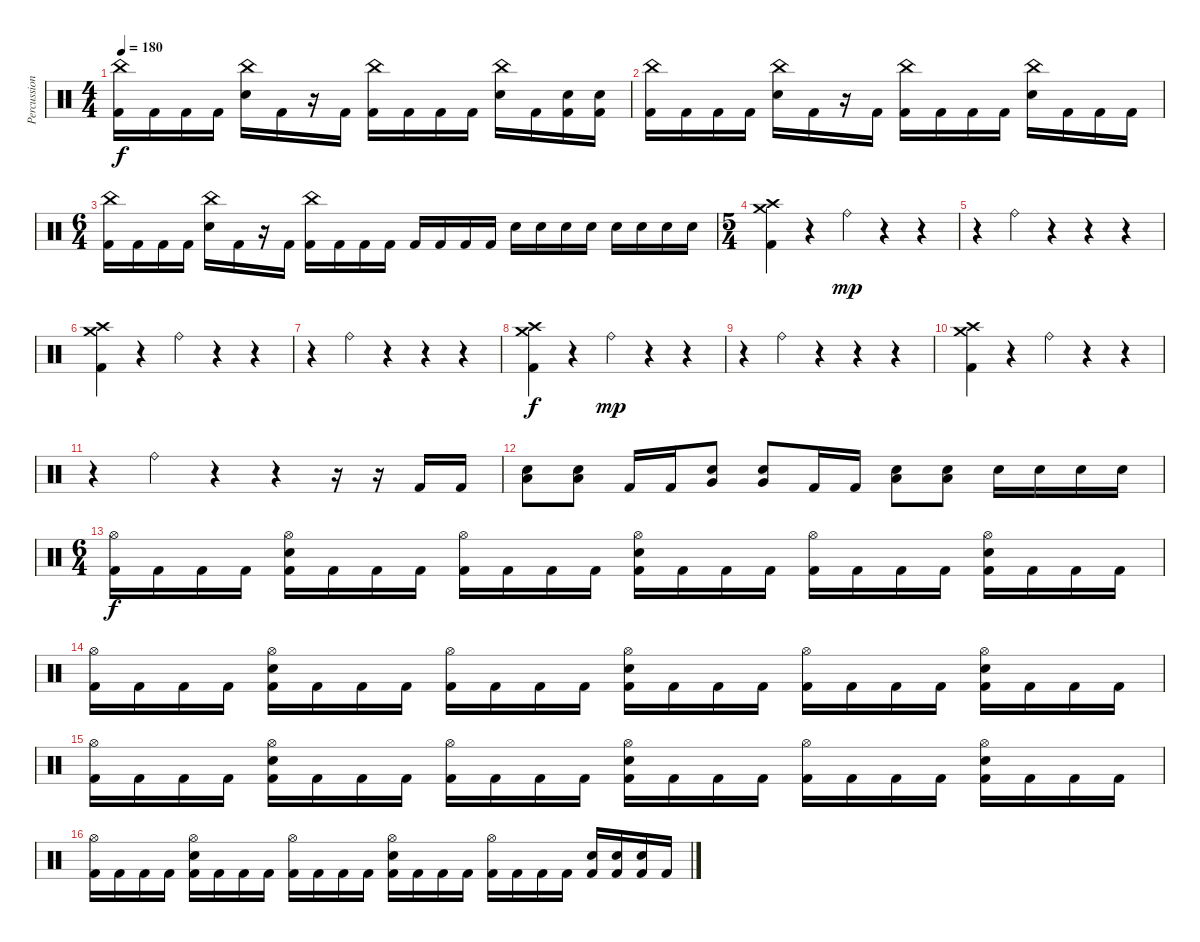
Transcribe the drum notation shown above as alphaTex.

\track ("Percussion" "Percussion") {instrument percussion}
\staff {score}
\articulation defaults
\ts (4 4)
\tempo 180
\clef neutral
\ks c
("China (hit)" "Kick (hit) 2").16{dy f} "Kick (hit) 2".16 "Kick (hit) 2".16 "Kick (hit) 2".16 ("China (hit)" "Electric Snare (hit)").16 "Kick (hit) 2".16 r.16 "Kick (hit) 2".16 ("China (hit)" "Kick (hit) 2").16 "Kick (hit) 2".16 "Kick (hit) 2".16 "Kick (hit) 2".16 ("China (hit)" "Electric Snare (hit)").16 "Kick (hit) 2".16 ("Electric Snare (hit)" "Kick (hit) 2").16 ("Electric Snare (hit)" "Kick (hit) 2").16 |
("China (hit)" "Kick (hit) 2").16 "Kick (hit) 2".16 "Kick (hit) 2".16 "Kick (hit) 2".16 ("China (hit)" "Electric Snare (hit)").16 "Kick (hit) 2".16 r.16 "Kick (hit) 2".16 ("China (hit)" "Kick (hit) 2").16 "Kick (hit) 2".16 "Kick (hit) 2".16 "Kick (hit) 2".16 ("China (hit)" "Electric Snare (hit)").16 "Kick (hit) 2".16 "Kick (hit) 2".16 "Kick (hit) 2".16 |
\ts (6 4)
("China (hit)" "Kick (hit) 2").16 "Kick (hit) 2".16 "Kick (hit) 2".16 "Kick (hit) 2".16 ("China (hit)" "Electric Snare (hit)").16 "Kick (hit) 2".16 r.16 "Kick (hit) 2".16 ("China (hit)" "Kick (hit) 2").16 "Kick (hit) 2".16 "Kick (hit) 2".16 "Kick (hit) 2".16 "Kick (hit) 2".16 "Kick (hit) 2".16 "Kick (hit) 2".16 "Kick (hit) 2".16 "Electric Snare (hit)".16 "Electric Snare (hit)".16 "Electric Snare (hit)".16 "Electric Snare (hit)".16 "Electric Snare (hit)".16 "Electric Snare (hit)".16 "Electric Snare (hit)".16 "Electric Snare (hit)".16 |
\ts (5 4)
("Crash medium (hit)" "Crash high (hit)" "Kick (hit) 2").4 r.4 "Ride (bell)".4{dy mp} r.4 r.4 |
r.4 "Ride (bell)".4 r.4 r.4 r.4 |
("Crash medium (hit)" "Crash high (hit)" "Kick (hit) 2").4 r.4 "Ride (bell)".4 r.4 r.4 |
r.4 "Ride (bell)".4 r.4 r.4 r.4 |
("Crash medium (hit)" "Crash high (hit)" "Kick (hit) 2").4{dy f} r.4 "Ride (bell)".4{dy mp} r.4 r.4 |
r.4 "Ride (bell)".4 r.4 r.4 r.4 |
("Crash medium (hit)" "Crash high (hit)" "Kick (hit) 2").4 r.4 "Ride (bell)".4 r.4 r.4 |
r.4 "Ride (bell)".4 r.4 r.4 r.16 r.16 "Kick (hit) 2".16 "Kick (hit) 2".16 |
("Electric Snare (hit)" "Low Tom (hit)").8 ("Electric Snare (hit)" "Low Tom (hit)").8 "Kick (hit) 2".16 "Kick (hit) 2".16 ("Electric Snare (hit)" "Very Low Tom (hit)").8 ("Electric Snare (hit)" "Very Low Tom (hit)").8 "Kick (hit) 2".16 "Kick (hit) 2".16 ("Electric Snare (hit)" "Low Floor Tom (hit)").8 ("Electric Snare (hit)" "Low Floor Tom (hit)").8 "Electric Snare (hit)".16 "Electric Snare (hit)".16 "Electric Snare (hit)".16 "Electric Snare (hit)".16 |
\ts (6 4)
("Hi-Hat (open)" "Kick (hit) 2").16{dy f} "Kick (hit) 2".16 "Kick (hit) 2".16 "Kick (hit) 2".16 ("Hi-Hat (open)" "Electric Snare (hit)" "Kick (hit) 2").16 "Kick (hit) 2".16 "Kick (hit) 2".16 "Kick (hit) 2".16 ("Hi-Hat (open)" "Kick (hit) 2").16 "Kick (hit) 2".16 "Kick (hit) 2".16 "Kick (hit) 2".16 ("Hi-Hat (open)" "Electric Snare (hit)" "Kick (hit) 2").16 "Kick (hit) 2".16 "Kick (hit) 2".16 "Kick (hit) 2".16 ("Hi-Hat (open)" "Kick (hit) 2").16 "Kick (hit) 2".16 "Kick (hit) 2".16 "Kick (hit) 2".16 ("Hi-Hat (open)" "Electric Snare (hit)" "Kick (hit) 2").16 "Kick (hit) 2".16 "Kick (hit) 2".16 "Kick (hit) 2".16 |
("Hi-Hat (open)" "Kick (hit) 2").16 "Kick (hit) 2".16 "Kick (hit) 2".16 "Kick (hit) 2".16 ("Hi-Hat (open)" "Electric Snare (hit)" "Kick (hit) 2").16 "Kick (hit) 2".16 "Kick (hit) 2".16 "Kick (hit) 2".16 ("Hi-Hat (open)" "Kick (hit) 2").16 "Kick (hit) 2".16 "Kick (hit) 2".16 "Kick (hit) 2".16 ("Hi-Hat (open)" "Electric Snare (hit)" "Kick (hit) 2").16 "Kick (hit) 2".16 "Kick (hit) 2".16 "Kick (hit) 2".16 ("Hi-Hat (open)" "Kick (hit) 2").16 "Kick (hit) 2".16 "Kick (hit) 2".16 "Kick (hit) 2".16 ("Hi-Hat (open)" "Electric Snare (hit)" "Kick (hit) 2").16 "Kick (hit) 2".16 "Kick (hit) 2".16 "Kick (hit) 2".16 |
("Hi-Hat (open)" "Kick (hit) 2").16 "Kick (hit) 2".16 "Kick (hit) 2".16 "Kick (hit) 2".16 ("Hi-Hat (open)" "Electric Snare (hit)" "Kick (hit) 2").16 "Kick (hit) 2".16 "Kick (hit) 2".16 "Kick (hit) 2".16 ("Hi-Hat (open)" "Kick (hit) 2").16 "Kick (hit) 2".16 "Kick (hit) 2".16 "Kick (hit) 2".16 ("Hi-Hat (open)" "Electric Snare (hit)" "Kick (hit) 2").16 "Kick (hit) 2".16 "Kick (hit) 2".16 "Kick (hit) 2".16 ("Hi-Hat (open)" "Kick (hit) 2").16 "Kick (hit) 2".16 "Kick (hit) 2".16 "Kick (hit) 2".16 ("Hi-Hat (open)" "Electric Snare (hit)" "Kick (hit) 2").16 "Kick (hit) 2".16 "Kick (hit) 2".16 "Kick (hit) 2".16 |
("Hi-Hat (open)" "Kick (hit) 2").16 "Kick (hit) 2".16 "Kick (hit) 2".16 "Kick (hit) 2".16 ("Hi-Hat (open)" "Electric Snare (hit)" "Kick (hit) 2").16 "Kick (hit) 2".16 "Kick (hit) 2".16 "Kick (hit) 2".16 ("Hi-Hat (open)" "Kick (hit) 2").16 "Kick (hit) 2".16 "Kick (hit) 2".16 "Kick (hit) 2".16 ("Hi-Hat (open)" "Electric Snare (hit)" "Kick (hit) 2").16 "Kick (hit) 2".16 "Kick (hit) 2".16 "Kick (hit) 2".16 ("Hi-Hat (open)" "Kick (hit) 2").16 "Kick (hit) 2".16 "Kick (hit) 2".16 "Kick (hit) 2".16 ("Electric Snare (hit)" "Kick (hit) 2").16 ("Electric Snare (hit)" "Kick (hit) 2").16 ("Electric Snare (hit)" "Kick (hit) 2").16 "Kick (hit) 2".16
